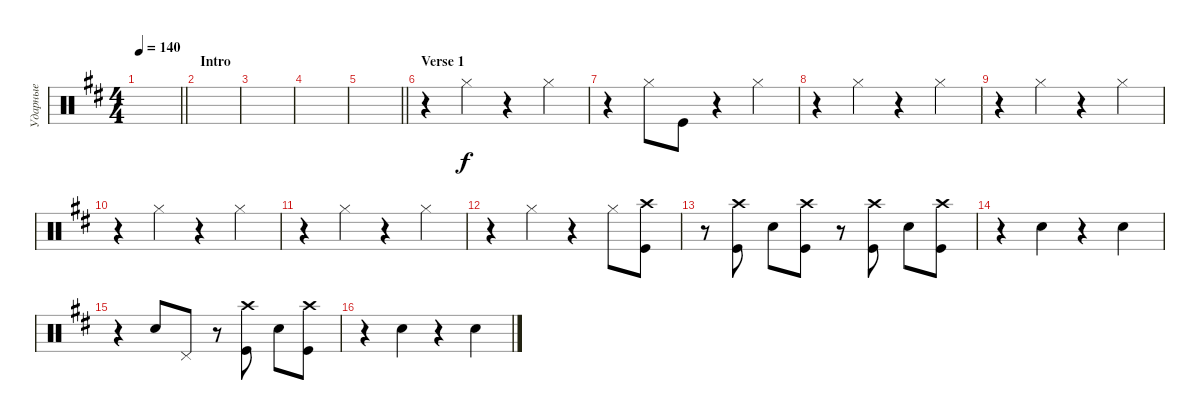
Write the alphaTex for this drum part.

\track ("Ударные" "Ударные") {instrument percussion}
\staff {score}
\articulation defaults
\ts (4 4)
\tempo 140
\clef neutral
\barLineRight lightlight
\ks bminor
|
\section ("" "Intro")
|
|
|
\barLineRight lightlight
|
\section ("" "Verse 1")
r.4 "Hi-Hat (closed)".4 r.4 "Hi-Hat (closed)".4 |
r.4 "Hi-Hat (closed)".8 "Kick (hit)".8 r.4 "Hi-Hat (closed)".4 |
r.4 "Hi-Hat (closed)".4 r.4 "Hi-Hat (closed)".4 |
r.4 "Hi-Hat (closed)".4 r.4 "Hi-Hat (closed)".4 |
r.4 "Hi-Hat (closed)".4 r.4 "Hi-Hat (closed)".4 |
r.4 "Hi-Hat (closed)".4 r.4 "Hi-Hat (closed)".4 |
r.4 "Hi-Hat (closed)".4 r.4 "Hi-Hat (closed)".8 ("Kick (hit)" "Crash high (hit)").8 |
r.8 ("Kick (hit)" "Crash high (hit)").8 "Snare (hit) 2".8 ("Kick (hit)" "Crash high (hit)").8 r.8 ("Kick (hit)" "Crash high (hit)").8 "Snare (hit) 2".8 ("Kick (hit)" "Crash high (hit)").8 |
r.4 "Snare (hit) 2".4 r.4 "Snare (hit) 2".4 |
r.4 "Snare (hit) 2".8 "Pedal Hi-Hat (hit)".8 r.8 ("Kick (hit)" "Crash high (hit)").8 "Snare (hit) 2".8 ("Kick (hit)" "Crash high (hit)").8 |
r.4 "Snare (hit) 2".4 r.4 "Snare (hit) 2".4
